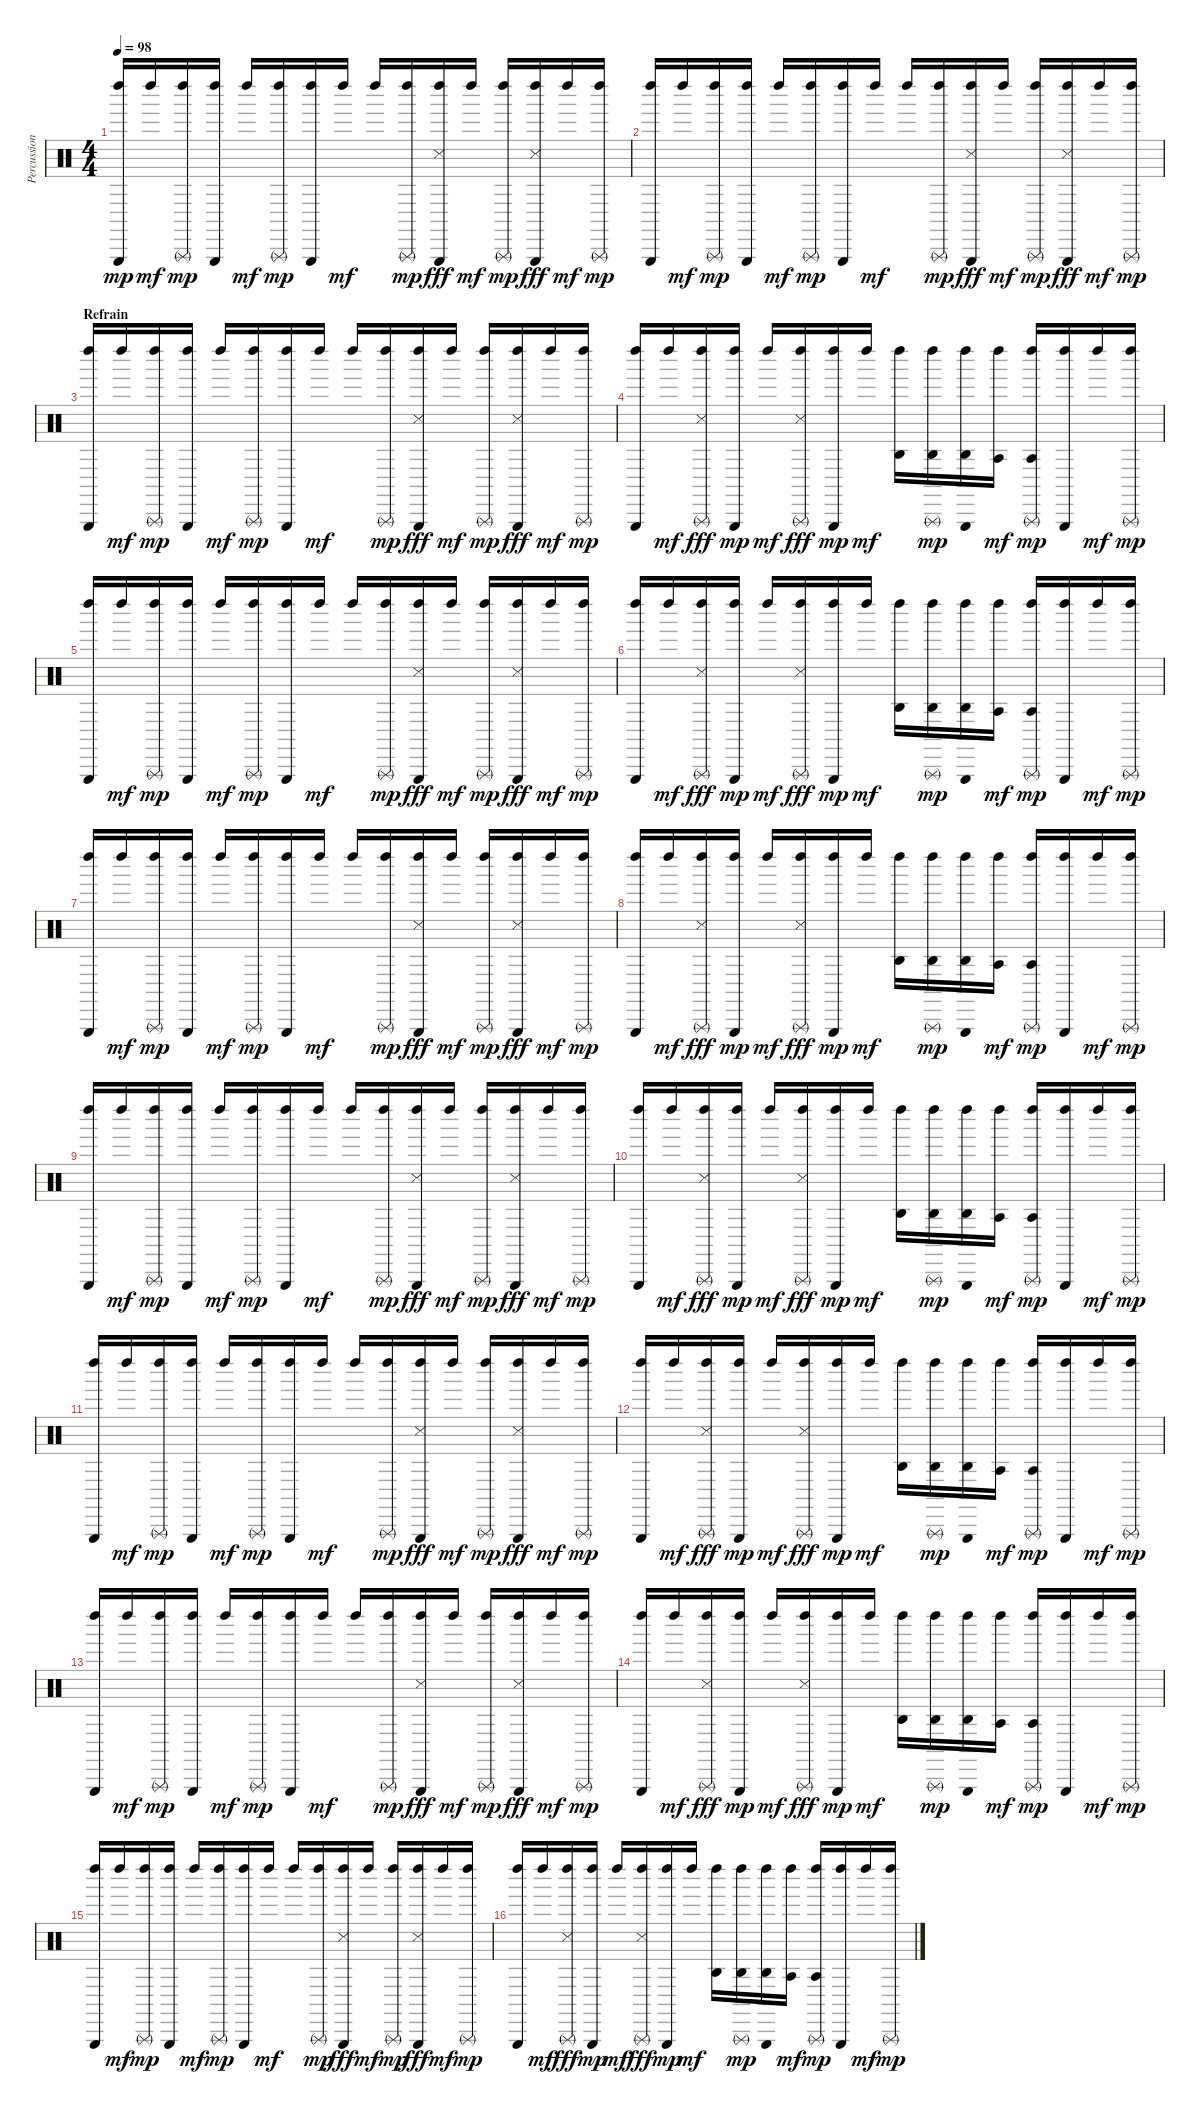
\track ("Percussions" "Percussion") {instrument percussion}
\staff {score}
\articulation defaults
\ts (4 4)
\tempo 98
\clef neutral
\ks c
("Left Maraca (hit)" "Triangle (hit)").16{dy mp} "Left Maraca (hit)".16{dy mf} ("Left Maraca (hit)" "Triangle (rnute)").16{dy mp} ("Left Maraca (hit)" "Triangle (hit)").16 "Left Maraca (hit)".16{dy mf} ("Left Maraca (hit)" "Triangle (rnute)").16{dy mp} ("Left Maraca (hit)" "Triangle (hit)").16 "Left Maraca (hit)".16{dy mf} "Left Maraca (hit)".16 ("Left Maraca (hit)" "Triangle (rnute)").16{dy mp} ("Left Maraca (hit)" "Triangle (hit)" "Snare (side stick) 3").16{dy fff} "Left Maraca (hit)".16{dy mf} ("Left Maraca (hit)" "Triangle (rnute)").16{dy mp} ("Left Maraca (hit)" "Triangle (hit)" "Snare (side stick) 3").16{dy fff} "Left Maraca (hit)".16{dy mf} ("Left Maraca (hit)" "Triangle (rnute)").16{dy mp} |
("Left Maraca (hit)" "Triangle (hit)").16 "Left Maraca (hit)".16{dy mf} ("Left Maraca (hit)" "Triangle (rnute)").16{dy mp} ("Left Maraca (hit)" "Triangle (hit)").16 "Left Maraca (hit)".16{dy mf} ("Left Maraca (hit)" "Triangle (rnute)").16{dy mp} ("Left Maraca (hit)" "Triangle (hit)").16 "Left Maraca (hit)".16{dy mf} "Left Maraca (hit)".16 ("Left Maraca (hit)" "Triangle (rnute)").16{dy mp} ("Left Maraca (hit)" "Triangle (hit)" "Snare (side stick) 3").16{dy fff} "Left Maraca (hit)".16{dy mf} ("Left Maraca (hit)" "Triangle (rnute)").16{dy mp} ("Left Maraca (hit)" "Triangle (hit)" "Snare (side stick) 3").16{dy fff} "Left Maraca (hit)".16{dy mf} ("Left Maraca (hit)" "Triangle (rnute)").16{dy mp} |
\section ("" "Refrain")
("Left Maraca (hit)" "Triangle (hit)").16 "Left Maraca (hit)".16{dy mf} ("Left Maraca (hit)" "Triangle (rnute)").16{dy mp} ("Left Maraca (hit)" "Triangle (hit)").16 "Left Maraca (hit)".16{dy mf} ("Left Maraca (hit)" "Triangle (rnute)").16{dy mp} ("Left Maraca (hit)" "Triangle (hit)").16 "Left Maraca (hit)".16{dy mf} "Left Maraca (hit)".16 ("Left Maraca (hit)" "Triangle (rnute)").16{dy mp} ("Left Maraca (hit)" "Triangle (hit)" "Snare (side stick) 3").16{dy fff} "Left Maraca (hit)".16{dy mf} ("Left Maraca (hit)" "Triangle (rnute)").16{dy mp} ("Left Maraca (hit)" "Triangle (hit)" "Snare (side stick) 3").16{dy fff} "Left Maraca (hit)".16{dy mf} ("Left Maraca (hit)" "Triangle (rnute)").16{dy mp} |
("Left Maraca (hit)" "Triangle (hit)").16 "Left Maraca (hit)".16{dy mf} ("Left Maraca (hit)" "Triangle (rnute)" "Snare (side stick) 3").16{dy fff} ("Left Maraca (hit)" "Triangle (hit)").16{dy mp} "Left Maraca (hit)".16{dy mf} ("Left Maraca (hit)" "Triangle (rnute)" "Snare (side stick) 3").16{dy fff} ("Left Maraca (hit)" "Triangle (hit)").16{dy mp} "Left Maraca (hit)".16{dy mf} ("Left Maraca (hit)" "Agogo high (hit)").16 ("Left Maraca (hit)" "Triangle (rnute)" "Agogo high (hit)").16{dy mp} ("Left Maraca (hit)" "Triangle (hit)" "Agogo high (hit)").16 ("Left Maraca (hit)" "Agogo tow (hit)").16{dy mf} ("Left Maraca (hit)" "Triangle (rnute)" "Agogo tow (hit)").16{dy mp} ("Left Maraca (hit)" "Triangle (hit)").16 "Left Maraca (hit)".16{dy mf} ("Left Maraca (hit)" "Triangle (rnute)").16{dy mp} |
("Left Maraca (hit)" "Triangle (hit)").16 "Left Maraca (hit)".16{dy mf} ("Left Maraca (hit)" "Triangle (rnute)").16{dy mp} ("Left Maraca (hit)" "Triangle (hit)").16 "Left Maraca (hit)".16{dy mf} ("Left Maraca (hit)" "Triangle (rnute)").16{dy mp} ("Left Maraca (hit)" "Triangle (hit)").16 "Left Maraca (hit)".16{dy mf} "Left Maraca (hit)".16 ("Left Maraca (hit)" "Triangle (rnute)").16{dy mp} ("Left Maraca (hit)" "Triangle (hit)" "Snare (side stick) 3").16{dy fff} "Left Maraca (hit)".16{dy mf} ("Left Maraca (hit)" "Triangle (rnute)").16{dy mp} ("Left Maraca (hit)" "Triangle (hit)" "Snare (side stick) 3").16{dy fff} "Left Maraca (hit)".16{dy mf} ("Left Maraca (hit)" "Triangle (rnute)").16{dy mp} |
("Left Maraca (hit)" "Triangle (hit)").16 "Left Maraca (hit)".16{dy mf} ("Left Maraca (hit)" "Triangle (rnute)" "Snare (side stick) 3").16{dy fff} ("Left Maraca (hit)" "Triangle (hit)").16{dy mp} "Left Maraca (hit)".16{dy mf} ("Left Maraca (hit)" "Triangle (rnute)" "Snare (side stick) 3").16{dy fff} ("Left Maraca (hit)" "Triangle (hit)").16{dy mp} "Left Maraca (hit)".16{dy mf} ("Left Maraca (hit)" "Agogo high (hit)").16 ("Left Maraca (hit)" "Triangle (rnute)" "Agogo high (hit)").16{dy mp} ("Left Maraca (hit)" "Triangle (hit)" "Agogo high (hit)").16 ("Left Maraca (hit)" "Agogo tow (hit)").16{dy mf} ("Left Maraca (hit)" "Triangle (rnute)" "Agogo tow (hit)").16{dy mp} ("Left Maraca (hit)" "Triangle (hit)").16 "Left Maraca (hit)".16{dy mf} ("Left Maraca (hit)" "Triangle (rnute)").16{dy mp} |
("Left Maraca (hit)" "Triangle (hit)").16 "Left Maraca (hit)".16{dy mf} ("Left Maraca (hit)" "Triangle (rnute)").16{dy mp} ("Left Maraca (hit)" "Triangle (hit)").16 "Left Maraca (hit)".16{dy mf} ("Left Maraca (hit)" "Triangle (rnute)").16{dy mp} ("Left Maraca (hit)" "Triangle (hit)").16 "Left Maraca (hit)".16{dy mf} "Left Maraca (hit)".16 ("Left Maraca (hit)" "Triangle (rnute)").16{dy mp} ("Left Maraca (hit)" "Triangle (hit)" "Snare (side stick) 3").16{dy fff} "Left Maraca (hit)".16{dy mf} ("Left Maraca (hit)" "Triangle (rnute)").16{dy mp} ("Left Maraca (hit)" "Triangle (hit)" "Snare (side stick) 3").16{dy fff} "Left Maraca (hit)".16{dy mf} ("Left Maraca (hit)" "Triangle (rnute)").16{dy mp} |
("Left Maraca (hit)" "Triangle (hit)").16 "Left Maraca (hit)".16{dy mf} ("Left Maraca (hit)" "Triangle (rnute)" "Snare (side stick) 3").16{dy fff} ("Left Maraca (hit)" "Triangle (hit)").16{dy mp} "Left Maraca (hit)".16{dy mf} ("Left Maraca (hit)" "Triangle (rnute)" "Snare (side stick) 3").16{dy fff} ("Left Maraca (hit)" "Triangle (hit)").16{dy mp} "Left Maraca (hit)".16{dy mf} ("Left Maraca (hit)" "Agogo high (hit)").16 ("Left Maraca (hit)" "Triangle (rnute)" "Agogo high (hit)").16{dy mp} ("Left Maraca (hit)" "Triangle (hit)" "Agogo high (hit)").16 ("Left Maraca (hit)" "Agogo tow (hit)").16{dy mf} ("Left Maraca (hit)" "Triangle (rnute)" "Agogo tow (hit)").16{dy mp} ("Left Maraca (hit)" "Triangle (hit)").16 "Left Maraca (hit)".16{dy mf} ("Left Maraca (hit)" "Triangle (rnute)").16{dy mp} |
("Left Maraca (hit)" "Triangle (hit)").16 "Left Maraca (hit)".16{dy mf} ("Left Maraca (hit)" "Triangle (rnute)").16{dy mp} ("Left Maraca (hit)" "Triangle (hit)").16 "Left Maraca (hit)".16{dy mf} ("Left Maraca (hit)" "Triangle (rnute)").16{dy mp} ("Left Maraca (hit)" "Triangle (hit)").16 "Left Maraca (hit)".16{dy mf} "Left Maraca (hit)".16 ("Left Maraca (hit)" "Triangle (rnute)").16{dy mp} ("Left Maraca (hit)" "Triangle (hit)" "Snare (side stick) 3").16{dy fff} "Left Maraca (hit)".16{dy mf} ("Left Maraca (hit)" "Triangle (rnute)").16{dy mp} ("Left Maraca (hit)" "Triangle (hit)" "Snare (side stick) 3").16{dy fff} "Left Maraca (hit)".16{dy mf} ("Left Maraca (hit)" "Triangle (rnute)").16{dy mp} |
("Left Maraca (hit)" "Triangle (hit)").16 "Left Maraca (hit)".16{dy mf} ("Left Maraca (hit)" "Triangle (rnute)" "Snare (side stick) 3").16{dy fff} ("Left Maraca (hit)" "Triangle (hit)").16{dy mp} "Left Maraca (hit)".16{dy mf} ("Left Maraca (hit)" "Triangle (rnute)" "Snare (side stick) 3").16{dy fff} ("Left Maraca (hit)" "Triangle (hit)").16{dy mp} "Left Maraca (hit)".16{dy mf} ("Left Maraca (hit)" "Agogo high (hit)").16 ("Left Maraca (hit)" "Triangle (rnute)" "Agogo high (hit)").16{dy mp} ("Left Maraca (hit)" "Triangle (hit)" "Agogo high (hit)").16 ("Left Maraca (hit)" "Agogo tow (hit)").16{dy mf} ("Left Maraca (hit)" "Triangle (rnute)" "Agogo tow (hit)").16{dy mp} ("Left Maraca (hit)" "Triangle (hit)").16 "Left Maraca (hit)".16{dy mf} ("Left Maraca (hit)" "Triangle (rnute)").16{dy mp} |
("Left Maraca (hit)" "Triangle (hit)").16 "Left Maraca (hit)".16{dy mf} ("Left Maraca (hit)" "Triangle (rnute)").16{dy mp} ("Left Maraca (hit)" "Triangle (hit)").16 "Left Maraca (hit)".16{dy mf} ("Left Maraca (hit)" "Triangle (rnute)").16{dy mp} ("Left Maraca (hit)" "Triangle (hit)").16 "Left Maraca (hit)".16{dy mf} "Left Maraca (hit)".16 ("Left Maraca (hit)" "Triangle (rnute)").16{dy mp} ("Left Maraca (hit)" "Triangle (hit)" "Snare (side stick) 3").16{dy fff} "Left Maraca (hit)".16{dy mf} ("Left Maraca (hit)" "Triangle (rnute)").16{dy mp} ("Left Maraca (hit)" "Triangle (hit)" "Snare (side stick) 3").16{dy fff} "Left Maraca (hit)".16{dy mf} ("Left Maraca (hit)" "Triangle (rnute)").16{dy mp} |
("Left Maraca (hit)" "Triangle (hit)").16 "Left Maraca (hit)".16{dy mf} ("Left Maraca (hit)" "Triangle (rnute)" "Snare (side stick) 3").16{dy fff} ("Left Maraca (hit)" "Triangle (hit)").16{dy mp} "Left Maraca (hit)".16{dy mf} ("Left Maraca (hit)" "Triangle (rnute)" "Snare (side stick) 3").16{dy fff} ("Left Maraca (hit)" "Triangle (hit)").16{dy mp} "Left Maraca (hit)".16{dy mf} ("Left Maraca (hit)" "Agogo high (hit)").16 ("Left Maraca (hit)" "Triangle (rnute)" "Agogo high (hit)").16{dy mp} ("Left Maraca (hit)" "Triangle (hit)" "Agogo high (hit)").16 ("Left Maraca (hit)" "Agogo tow (hit)").16{dy mf} ("Left Maraca (hit)" "Triangle (rnute)" "Agogo tow (hit)").16{dy mp} ("Left Maraca (hit)" "Triangle (hit)").16 "Left Maraca (hit)".16{dy mf} ("Left Maraca (hit)" "Triangle (rnute)").16{dy mp} |
("Left Maraca (hit)" "Triangle (hit)").16 "Left Maraca (hit)".16{dy mf} ("Left Maraca (hit)" "Triangle (rnute)").16{dy mp} ("Left Maraca (hit)" "Triangle (hit)").16 "Left Maraca (hit)".16{dy mf} ("Left Maraca (hit)" "Triangle (rnute)").16{dy mp} ("Left Maraca (hit)" "Triangle (hit)").16 "Left Maraca (hit)".16{dy mf} "Left Maraca (hit)".16 ("Left Maraca (hit)" "Triangle (rnute)").16{dy mp} ("Left Maraca (hit)" "Triangle (hit)" "Snare (side stick) 3").16{dy fff} "Left Maraca (hit)".16{dy mf} ("Left Maraca (hit)" "Triangle (rnute)").16{dy mp} ("Left Maraca (hit)" "Triangle (hit)" "Snare (side stick) 3").16{dy fff} "Left Maraca (hit)".16{dy mf} ("Left Maraca (hit)" "Triangle (rnute)").16{dy mp} |
("Left Maraca (hit)" "Triangle (hit)").16 "Left Maraca (hit)".16{dy mf} ("Left Maraca (hit)" "Triangle (rnute)" "Snare (side stick) 3").16{dy fff} ("Left Maraca (hit)" "Triangle (hit)").16{dy mp} "Left Maraca (hit)".16{dy mf} ("Left Maraca (hit)" "Triangle (rnute)" "Snare (side stick) 3").16{dy fff} ("Left Maraca (hit)" "Triangle (hit)").16{dy mp} "Left Maraca (hit)".16{dy mf} ("Left Maraca (hit)" "Agogo high (hit)").16 ("Left Maraca (hit)" "Triangle (rnute)" "Agogo high (hit)").16{dy mp} ("Left Maraca (hit)" "Triangle (hit)" "Agogo high (hit)").16 ("Left Maraca (hit)" "Agogo tow (hit)").16{dy mf} ("Left Maraca (hit)" "Triangle (rnute)" "Agogo tow (hit)").16{dy mp} ("Left Maraca (hit)" "Triangle (hit)").16 "Left Maraca (hit)".16{dy mf} ("Left Maraca (hit)" "Triangle (rnute)").16{dy mp} |
("Left Maraca (hit)" "Triangle (hit)").16 "Left Maraca (hit)".16{dy mf} ("Left Maraca (hit)" "Triangle (rnute)").16{dy mp} ("Left Maraca (hit)" "Triangle (hit)").16 "Left Maraca (hit)".16{dy mf} ("Left Maraca (hit)" "Triangle (rnute)").16{dy mp} ("Left Maraca (hit)" "Triangle (hit)").16 "Left Maraca (hit)".16{dy mf} "Left Maraca (hit)".16 ("Left Maraca (hit)" "Triangle (rnute)").16{dy mp} ("Left Maraca (hit)" "Triangle (hit)" "Snare (side stick) 3").16{dy fff} "Left Maraca (hit)".16{dy mf} ("Left Maraca (hit)" "Triangle (rnute)").16{dy mp} ("Left Maraca (hit)" "Triangle (hit)" "Snare (side stick) 3").16{dy fff} "Left Maraca (hit)".16{dy mf} ("Left Maraca (hit)" "Triangle (rnute)").16{dy mp} |
("Left Maraca (hit)" "Triangle (hit)").16 "Left Maraca (hit)".16{dy mf} ("Left Maraca (hit)" "Triangle (rnute)" "Snare (side stick) 3").16{dy fff} ("Left Maraca (hit)" "Triangle (hit)").16{dy mp} "Left Maraca (hit)".16{dy mf} ("Left Maraca (hit)" "Triangle (rnute)" "Snare (side stick) 3").16{dy fff} ("Left Maraca (hit)" "Triangle (hit)").16{dy mp} "Left Maraca (hit)".16{dy mf} ("Left Maraca (hit)" "Agogo high (hit)").16 ("Left Maraca (hit)" "Triangle (rnute)" "Agogo high (hit)").16{dy mp} ("Left Maraca (hit)" "Triangle (hit)" "Agogo high (hit)").16 ("Left Maraca (hit)" "Agogo tow (hit)").16{dy mf} ("Left Maraca (hit)" "Triangle (rnute)" "Agogo tow (hit)").16{dy mp} ("Left Maraca (hit)" "Triangle (hit)").16 "Left Maraca (hit)".16{dy mf} ("Left Maraca (hit)" "Triangle (rnute)").16{dy mp}
